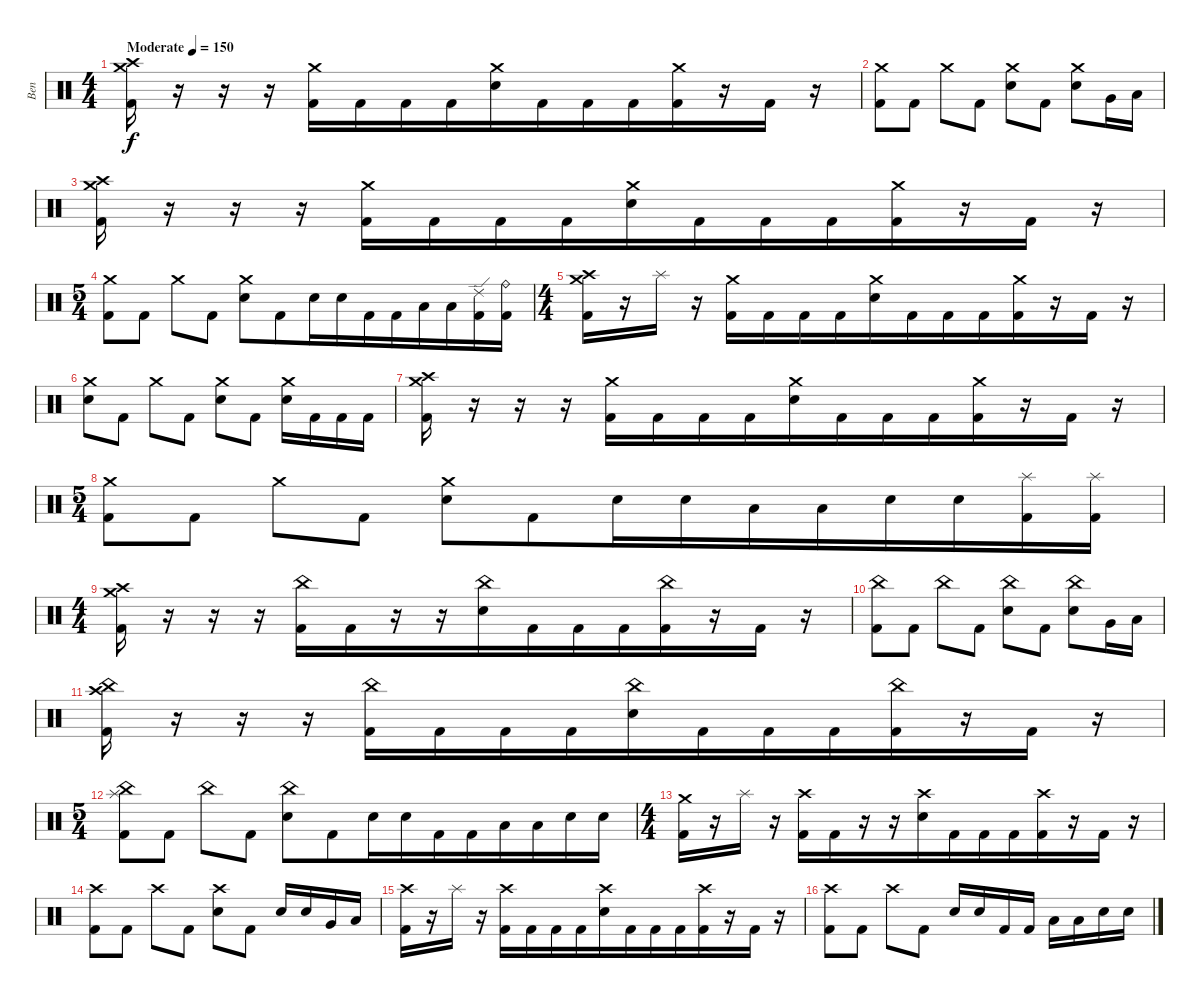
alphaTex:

\track ("Ben" "Ben") {instrument percussion}
\staff {score}
\articulation defaults
\ts (4 4)
\tempo (150 "Moderate")
\clef neutral
\ks c
("Kick (hit) 2" "Crash high (hit)" "Crash medium (hit)").16{dy f} r.16{beam merge} r.16 r.16 ("Kick (hit) 2" "Crash medium (hit)").16 "Kick (hit) 2".16{beam merge} "Kick (hit) 2".16 "Kick (hit) 2".16{beam merge} ("Electric Snare (hit)" "Crash medium (hit)").16{beam merge} "Kick (hit) 2".16 "Kick (hit) 2".16{beam merge} "Kick (hit) 2".16{beam merge} ("Kick (hit) 2" "Crash medium (hit)").16 r.16{beam merge} "Kick (hit) 2".16 r.16 |
("Kick (hit) 2" "Crash medium (hit)").8 "Kick (hit) 2".8 "Crash medium (hit)".8 "Kick (hit) 2".8 ("Electric Snare (hit)" "Crash medium (hit)").8 "Kick (hit) 2".8 ("Electric Snare (hit)" "Crash medium (hit)").8{beam merge} "Very Low Tom (hit)".16 "Low Floor Tom (hit)".16 |
("Kick (hit) 2" "Crash high (hit)" "Crash medium (hit)").16 r.16{beam merge} r.16 r.16 ("Kick (hit) 2" "Crash medium (hit)").16 "Kick (hit) 2".16{beam merge} "Kick (hit) 2".16 "Kick (hit) 2".16{beam merge} ("Electric Snare (hit)" "Crash medium (hit)").16{beam merge} "Kick (hit) 2".16 "Kick (hit) 2".16{beam merge} "Kick (hit) 2".16{beam merge} ("Kick (hit) 2" "Crash medium (hit)").16 r.16{beam merge} "Kick (hit) 2".16 r.16 |
\ts (5 4)
("Kick (hit) 2" "Crash medium (hit)").8 "Kick (hit) 2".8 "Crash medium (hit)".8 "Kick (hit) 2".8 ("Electric Snare (hit)" "Crash medium (hit)").8 "Kick (hit) 2".8{beam merge} "Electric Snare (hit)".16{beam merge} "Electric Snare (hit)".16 "Kick (hit) 2".16 "Kick (hit) 2".16{beam merge} "Low Floor Tom (hit)".16{beam merge} "Low Floor Tom (hit)".16{beam merge} ("Kick (hit) 2" "Ride (edge) 2").16 ("Kick (hit) 2" "Ride (bell)").16 |
\ts (4 4)
("Kick (hit) 2" "Crash high (hit)" "Crash medium (hit)").16 r.16{beam merge} "Splash (hit)".16 r.16 ("Kick (hit) 2" "Crash medium (hit)").16 "Kick (hit) 2".16{beam merge} "Kick (hit) 2".16 "Kick (hit) 2".16{beam merge} ("Electric Snare (hit)" "Crash medium (hit)").16{beam merge} "Kick (hit) 2".16 "Kick (hit) 2".16{beam merge} "Kick (hit) 2".16{beam merge} ("Kick (hit) 2" "Crash medium (hit)").16 r.16{beam merge} "Kick (hit) 2".16 r.16 |
("Electric Snare (hit)" "Crash medium (hit)").8 "Kick (hit) 2".8 "Crash medium (hit)".8 "Kick (hit) 2".8 ("Electric Snare (hit)" "Crash medium (hit)").8 "Kick (hit) 2".8 ("Electric Snare (hit)" "Crash medium (hit)").16 "Kick (hit) 2".16 "Kick (hit) 2".16{beam merge} "Kick (hit) 2".16 |
("Kick (hit) 2" "Crash high (hit)" "Crash medium (hit)").16 r.16{beam merge} r.16 r.16 ("Kick (hit) 2" "Crash medium (hit)").16 "Kick (hit) 2".16{beam merge} "Kick (hit) 2".16 "Kick (hit) 2".16{beam merge} ("Electric Snare (hit)" "Crash medium (hit)").16{beam merge} "Kick (hit) 2".16 "Kick (hit) 2".16{beam merge} "Kick (hit) 2".16{beam merge} ("Kick (hit) 2" "Crash medium (hit)").16 r.16{beam merge} "Kick (hit) 2".16 r.16 |
\ts (5 4)
("Kick (hit) 2" "Crash medium (hit)").8 "Kick (hit) 2".8 "Crash medium (hit)".8 "Kick (hit) 2".8 ("Electric Snare (hit)" "Crash medium (hit)").8 "Kick (hit) 2".8{beam merge} "Electric Snare (hit)".16{beam merge} "Electric Snare (hit)".16 "Low Tom (hit)".16 "Low Floor Tom (hit)".16{beam merge} "Electric Snare (hit)".16{beam merge} "Electric Snare (hit)".16{beam merge} ("Kick (hit) 2" "Splash (hit)").16 ("Kick (hit) 2" "Splash (hit)").16 |
\ts (4 4)
("Kick (hit) 2" "Crash high (hit)" "Crash medium (hit)").16 r.16{beam merge} r.16 r.16 ("Kick (hit) 2" "China (hit)").16 "Kick (hit) 2".16{beam merge} r.16 r.16{beam merge} ("Electric Snare (hit)" "China (hit)").16{beam merge} "Kick (hit) 2".16 "Kick (hit) 2".16{beam merge} "Kick (hit) 2".16{beam merge} ("Kick (hit) 2" "China (hit)").16 r.16{beam merge} "Kick (hit) 2".16 r.16 |
("Kick (hit) 2" "China (hit)").8 "Kick (hit) 2".8 "China (hit)".8 "Kick (hit) 2".8 ("Electric Snare (hit)" "China (hit)").8 "Kick (hit) 2".8 ("Electric Snare (hit)" "China (hit)").8{beam merge} "Very Low Tom (hit)".16 "Low Floor Tom (hit)".16 |
("Kick (hit) 2" "Crash high (hit)" "China (hit)").16 r.16{beam merge} r.16 r.16 ("Kick (hit) 2" "China (hit)").16 "Kick (hit) 2".16{beam merge} "Kick (hit) 2".16 "Kick (hit) 2".16{beam merge} ("Electric Snare (hit)" "China (hit)").16{beam merge} "Kick (hit) 2".16 "Kick (hit) 2".16{beam merge} "Kick (hit) 2".16{beam merge} ("Kick (hit) 2" "China (hit)").16 r.16{beam merge} "Kick (hit) 2".16 r.16 |
\ts (5 4)
("Kick (hit) 2" "Splash (hit)" "China (hit)").8 "Kick (hit) 2".8 "China (hit)".8 "Kick (hit) 2".8 ("Electric Snare (hit)" "China (hit)").8 "Kick (hit) 2".8{beam merge} "Electric Snare (hit)".16{beam merge} "Electric Snare (hit)".16 "Kick (hit) 2".16 "Kick (hit) 2".16{beam merge} "Low Floor Tom (hit)".16{beam merge} "Low Floor Tom (hit)".16{beam merge} "Electric Snare (hit)".16 "Electric Snare (hit)".16 |
\ts (4 4)
("Kick (hit) 2" "Crash medium (hit)").16 r.16{beam merge} "Splash (hit)".16 r.16 ("Kick (hit) 2" "Crash high (hit)").16 "Kick (hit) 2".16{beam merge} r.16 r.16{beam merge} ("Electric Snare (hit)" "Crash high (hit)").16{beam merge} "Kick (hit) 2".16 "Kick (hit) 2".16{beam merge} "Kick (hit) 2".16{beam merge} ("Kick (hit) 2" "Crash high (hit)").16 r.16{beam merge} "Kick (hit) 2".16 r.16 |
("Kick (hit) 2" "Crash high (hit)").8 "Kick (hit) 2".8 "Crash high (hit)".8 "Kick (hit) 2".8 ("Electric Snare (hit)" "Crash high (hit)").8 "Kick (hit) 2".8 "Electric Snare (hit)".16{beam merge} "Electric Snare (hit)".16{beam merge} "Very Low Tom (hit)".16 "Low Floor Tom (hit)".16 |
("Kick (hit) 2" "Crash high (hit)").16 r.16{beam merge} "Splash (hit)".16 r.16 ("Kick (hit) 2" "Crash high (hit)").16 "Kick (hit) 2".16{beam merge} "Kick (hit) 2".16 "Kick (hit) 2".16{beam merge} ("Electric Snare (hit)" "Crash high (hit)").16{beam merge} "Kick (hit) 2".16 "Kick (hit) 2".16{beam merge} "Kick (hit) 2".16{beam merge} ("Kick (hit) 2" "Crash high (hit)").16 r.16{beam merge} "Kick (hit) 2".16 r.16 |
("Kick (hit) 2" "Crash high (hit)").8 "Kick (hit) 2".8 "Crash high (hit)".8 "Kick (hit) 2".8 "Electric Snare (hit)".16{beam merge} "Electric Snare (hit)".16{beam merge} "Kick (hit) 2".16 "Kick (hit) 2".16 "Low Floor Tom (hit)".16 "Low Floor Tom (hit)".16{beam merge} "Electric Snare (hit)".16 "Electric Snare (hit)".16
